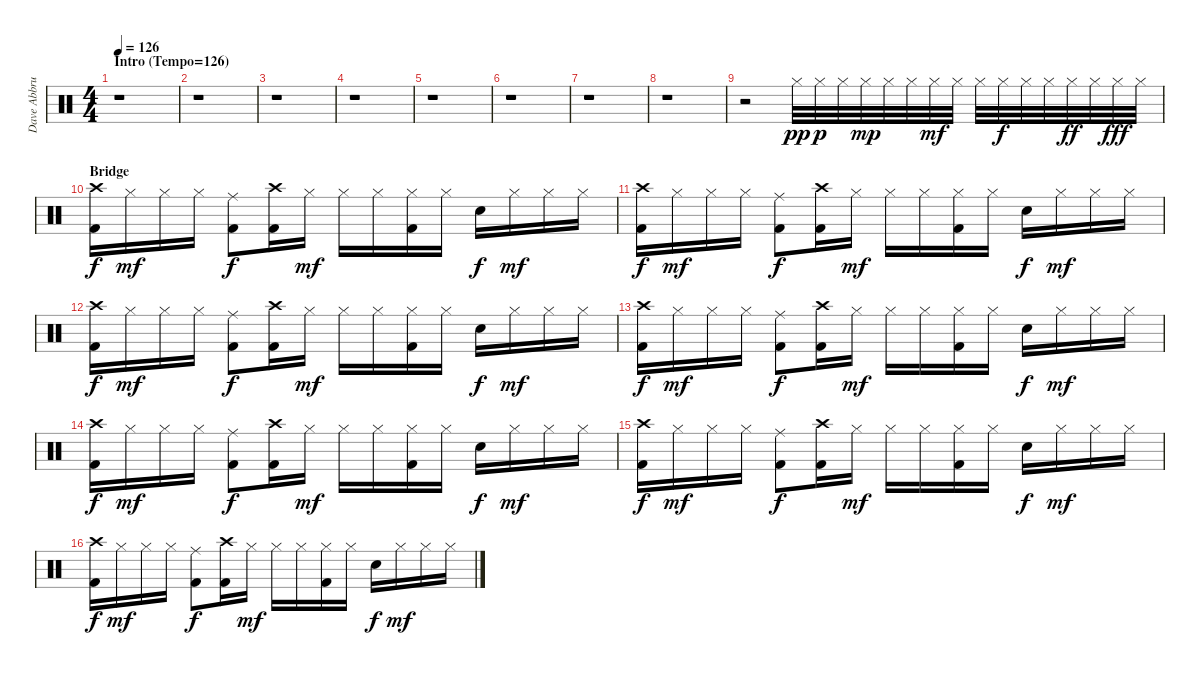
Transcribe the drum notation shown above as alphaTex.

\track ("Dave Abbruze - Drums" "Dave Abbru") {instrument percussion}
\staff {score}
\articulation defaults
\ts (4 4)
\section ("" "Intro (Tempo=126)")
\tempo 126
\clef neutral
\ks c
r.1{dy pp} |
r.1 |
r.1 |
r.1 |
r.1 |
r.1 |
r.1 |
r.1 |
r.2 "Hi-Hat (closed)".32 "Hi-Hat (closed)".32{dy p} "Hi-Hat (closed)".32 "Hi-Hat (closed)".32{dy mp} "Hi-Hat (closed)".32 "Hi-Hat (closed)".32 "Hi-Hat (closed)".32{dy mf} "Hi-Hat (closed)".32 "Hi-Hat (closed)".32 "Hi-Hat (closed)".32{dy f} "Hi-Hat (closed)".32 "Hi-Hat (closed)".32 "Hi-Hat (closed)".32{dy ff} "Hi-Hat (closed)".32 "Hi-Hat (closed)".32{dy fff} "Hi-Hat (closed)".32 |
\section ("" "Bridge")
("Crash high (hit)" "Kick (hit) 2").16{dy f} "Hi-Hat (closed)".16{dy mf} "Hi-Hat (closed)".16 "Hi-Hat (closed)".16 ("Ride (middle)" "Kick (hit) 2").8{dy f} ("Crash high (hit)" "Kick (hit) 2").16 "Hi-Hat (closed)".16{dy mf} "Hi-Hat (closed)".16 "Hi-Hat (closed)".16 ("Hi-Hat (closed)" "Kick (hit) 2").16 "Hi-Hat (closed)".16 "Electric Snare (hit)".16{dy f} "Hi-Hat (closed)".16{dy mf} "Hi-Hat (closed)".16 "Hi-Hat (closed)".16 |
("Crash high (hit)" "Kick (hit) 2").16{dy f} "Hi-Hat (closed)".16{dy mf} "Hi-Hat (closed)".16 "Hi-Hat (closed)".16 ("Ride (middle)" "Kick (hit) 2").8{dy f} ("Crash high (hit)" "Kick (hit) 2").16 "Hi-Hat (closed)".16{dy mf} "Hi-Hat (closed)".16 "Hi-Hat (closed)".16 ("Hi-Hat (closed)" "Kick (hit) 2").16 "Hi-Hat (closed)".16 "Electric Snare (hit)".16{dy f} "Hi-Hat (closed)".16{dy mf} "Hi-Hat (closed)".16 "Hi-Hat (closed)".16 |
("Crash high (hit)" "Kick (hit) 2").16{dy f} "Hi-Hat (closed)".16{dy mf} "Hi-Hat (closed)".16 "Hi-Hat (closed)".16 ("Ride (middle)" "Kick (hit) 2").8{dy f} ("Crash high (hit)" "Kick (hit) 2").16 "Hi-Hat (closed)".16{dy mf} "Hi-Hat (closed)".16 "Hi-Hat (closed)".16 ("Hi-Hat (closed)" "Kick (hit) 2").16 "Hi-Hat (closed)".16 "Electric Snare (hit)".16{dy f} "Hi-Hat (closed)".16{dy mf} "Hi-Hat (closed)".16 "Hi-Hat (closed)".16 |
("Crash high (hit)" "Kick (hit) 2").16{dy f} "Hi-Hat (closed)".16{dy mf} "Hi-Hat (closed)".16 "Hi-Hat (closed)".16 ("Ride (middle)" "Kick (hit) 2").8{dy f} ("Crash high (hit)" "Kick (hit) 2").16 "Hi-Hat (closed)".16{dy mf} "Hi-Hat (closed)".16 "Hi-Hat (closed)".16 ("Hi-Hat (closed)" "Kick (hit) 2").16 "Hi-Hat (closed)".16 "Electric Snare (hit)".16{dy f} "Hi-Hat (closed)".16{dy mf} "Hi-Hat (closed)".16 "Hi-Hat (closed)".16 |
("Crash high (hit)" "Kick (hit) 2").16{dy f} "Hi-Hat (closed)".16{dy mf} "Hi-Hat (closed)".16 "Hi-Hat (closed)".16 ("Ride (middle)" "Kick (hit) 2").8{dy f} ("Crash high (hit)" "Kick (hit) 2").16 "Hi-Hat (closed)".16{dy mf} "Hi-Hat (closed)".16 "Hi-Hat (closed)".16 ("Hi-Hat (closed)" "Kick (hit) 2").16 "Hi-Hat (closed)".16 "Electric Snare (hit)".16{dy f} "Hi-Hat (closed)".16{dy mf} "Hi-Hat (closed)".16 "Hi-Hat (closed)".16 |
("Crash high (hit)" "Kick (hit) 2").16{dy f} "Hi-Hat (closed)".16{dy mf} "Hi-Hat (closed)".16 "Hi-Hat (closed)".16 ("Ride (middle)" "Kick (hit) 2").8{dy f} ("Crash high (hit)" "Kick (hit) 2").16 "Hi-Hat (closed)".16{dy mf} "Hi-Hat (closed)".16 "Hi-Hat (closed)".16 ("Hi-Hat (closed)" "Kick (hit) 2").16 "Hi-Hat (closed)".16 "Electric Snare (hit)".16{dy f} "Hi-Hat (closed)".16{dy mf} "Hi-Hat (closed)".16 "Hi-Hat (closed)".16 |
("Crash high (hit)" "Kick (hit) 2").16{dy f} "Hi-Hat (closed)".16{dy mf} "Hi-Hat (closed)".16 "Hi-Hat (closed)".16 ("Ride (middle)" "Kick (hit) 2").8{dy f} ("Crash high (hit)" "Kick (hit) 2").16 "Hi-Hat (closed)".16{dy mf} "Hi-Hat (closed)".16 "Hi-Hat (closed)".16 ("Hi-Hat (closed)" "Kick (hit) 2").16 "Hi-Hat (closed)".16 "Electric Snare (hit)".16{dy f} "Hi-Hat (closed)".16{dy mf} "Hi-Hat (closed)".16 "Hi-Hat (closed)".16
